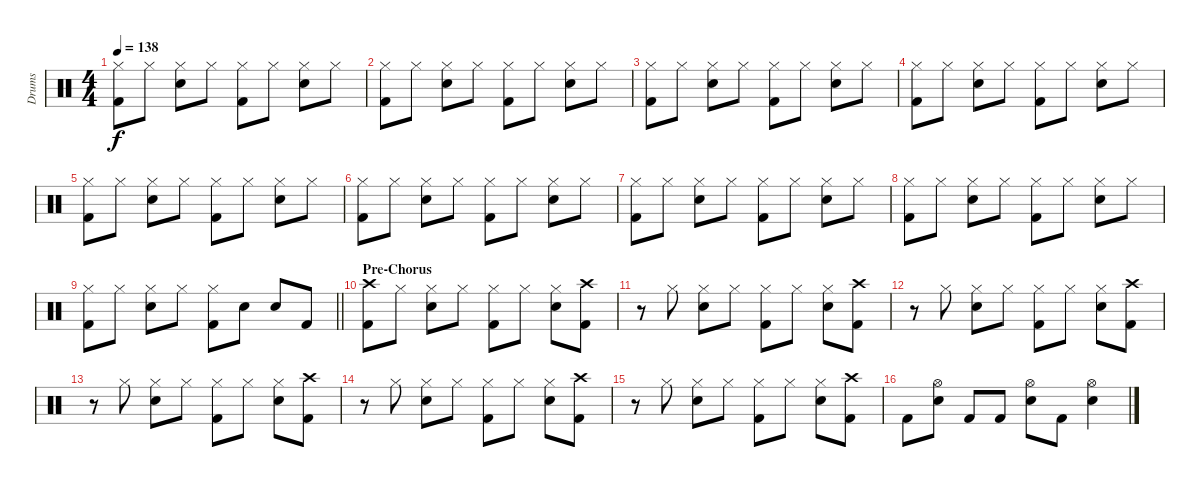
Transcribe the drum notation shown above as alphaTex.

\track ("Drums" "Drums") {instrument percussion}
\staff {score}
\articulation defaults
\ts (4 4)
\tempo 138
\clef neutral
\ks c
("Hi-Hat (closed)" "Kick (hit) 2").8{dy f} "Hi-Hat (closed)".8 ("Hi-Hat (closed)" "Snare (hit) 2").8 "Hi-Hat (closed)".8 ("Hi-Hat (closed)" "Kick (hit) 2").8 "Hi-Hat (closed)".8 ("Hi-Hat (closed)" "Snare (hit) 2").8 "Hi-Hat (closed)".8 |
("Hi-Hat (closed)" "Kick (hit) 2").8 "Hi-Hat (closed)".8 ("Hi-Hat (closed)" "Snare (hit) 2").8 "Hi-Hat (closed)".8 ("Hi-Hat (closed)" "Kick (hit) 2").8 "Hi-Hat (closed)".8 ("Hi-Hat (closed)" "Snare (hit) 2").8 "Hi-Hat (closed)".8 |
("Hi-Hat (closed)" "Kick (hit) 2").8 "Hi-Hat (closed)".8 ("Hi-Hat (closed)" "Snare (hit) 2").8 "Hi-Hat (closed)".8 ("Hi-Hat (closed)" "Kick (hit) 2").8 "Hi-Hat (closed)".8 ("Hi-Hat (closed)" "Snare (hit) 2").8 "Hi-Hat (closed)".8 |
("Hi-Hat (closed)" "Kick (hit) 2").8 "Hi-Hat (closed)".8 ("Hi-Hat (closed)" "Snare (hit) 2").8 "Hi-Hat (closed)".8 ("Hi-Hat (closed)" "Kick (hit) 2").8 "Hi-Hat (closed)".8 ("Hi-Hat (closed)" "Snare (hit) 2").8 "Hi-Hat (closed)".8 |
("Hi-Hat (closed)" "Kick (hit) 2").8 "Hi-Hat (closed)".8 ("Hi-Hat (closed)" "Snare (hit) 2").8 "Hi-Hat (closed)".8 ("Hi-Hat (closed)" "Kick (hit) 2").8 "Hi-Hat (closed)".8 ("Hi-Hat (closed)" "Snare (hit) 2").8 "Hi-Hat (closed)".8 |
("Hi-Hat (closed)" "Kick (hit) 2").8 "Hi-Hat (closed)".8 ("Hi-Hat (closed)" "Snare (hit) 2").8 "Hi-Hat (closed)".8 ("Hi-Hat (closed)" "Kick (hit) 2").8 "Hi-Hat (closed)".8 ("Hi-Hat (closed)" "Snare (hit) 2").8 "Hi-Hat (closed)".8 |
("Hi-Hat (closed)" "Kick (hit) 2").8 "Hi-Hat (closed)".8 ("Hi-Hat (closed)" "Snare (hit) 2").8 "Hi-Hat (closed)".8 ("Hi-Hat (closed)" "Kick (hit) 2").8 "Hi-Hat (closed)".8 ("Hi-Hat (closed)" "Snare (hit) 2").8 "Hi-Hat (closed)".8 |
("Hi-Hat (closed)" "Kick (hit) 2").8 "Hi-Hat (closed)".8 ("Hi-Hat (closed)" "Snare (hit) 2").8 "Hi-Hat (closed)".8 ("Hi-Hat (closed)" "Kick (hit) 2").8 "Hi-Hat (closed)".8 ("Hi-Hat (closed)" "Snare (hit) 2").8 "Hi-Hat (closed)".8 |
\barLineRight lightlight
("Hi-Hat (closed)" "Kick (hit) 2").8 "Hi-Hat (closed)".8 ("Hi-Hat (closed)" "Snare (hit) 2").8 "Hi-Hat (closed)".8 ("Hi-Hat (closed)" "Kick (hit) 2").8 "Snare (hit) 2".8 "Snare (hit) 2".8 "Kick (hit) 2".8 |
\section ("" "Pre-Chorus")
("Crash high (hit)" "Kick (hit) 2").8 "Hi-Hat (closed)".8 ("Hi-Hat (closed)" "Snare (hit) 2").8 "Hi-Hat (closed)".8 ("Hi-Hat (closed)" "Kick (hit) 2").8 "Hi-Hat (closed)".8 ("Hi-Hat (closed)" "Snare (hit) 2").8 ("Crash high (hit)" "Kick (hit) 2").8 |
r.8 "Hi-Hat (closed)".8 ("Hi-Hat (closed)" "Snare (hit) 2").8 "Hi-Hat (closed)".8 ("Hi-Hat (closed)" "Kick (hit) 2").8 "Hi-Hat (closed)".8 ("Hi-Hat (closed)" "Snare (hit) 2").8 ("Crash high (hit)" "Kick (hit) 2").8 |
r.8 "Hi-Hat (closed)".8 ("Hi-Hat (closed)" "Snare (hit) 2").8 "Hi-Hat (closed)".8 ("Hi-Hat (closed)" "Kick (hit) 2").8 "Hi-Hat (closed)".8 ("Hi-Hat (closed)" "Snare (hit) 2").8 ("Crash high (hit)" "Kick (hit) 2").8 |
r.8 "Hi-Hat (closed)".8 ("Hi-Hat (closed)" "Snare (hit) 2").8 "Hi-Hat (closed)".8 ("Hi-Hat (closed)" "Kick (hit) 2").8 "Hi-Hat (closed)".8 ("Hi-Hat (closed)" "Snare (hit) 2").8 ("Crash high (hit)" "Kick (hit) 2").8 |
r.8 "Hi-Hat (closed)".8 ("Hi-Hat (closed)" "Snare (hit) 2").8 "Hi-Hat (closed)".8 ("Hi-Hat (closed)" "Kick (hit) 2").8 "Hi-Hat (closed)".8 ("Hi-Hat (closed)" "Snare (hit) 2").8 ("Crash high (hit)" "Kick (hit) 2").8 |
r.8 "Hi-Hat (closed)".8 ("Hi-Hat (closed)" "Snare (hit) 2").8 "Hi-Hat (closed)".8 ("Hi-Hat (closed)" "Kick (hit) 2").8 "Hi-Hat (closed)".8 ("Hi-Hat (closed)" "Snare (hit) 2").8 ("Crash high (hit)" "Kick (hit) 2").8 |
"Kick (hit) 2".8 ("Hi-Hat (open)" "Snare (hit) 2").8 "Kick (hit) 2".8 "Kick (hit) 2".8 ("Hi-Hat (open)" "Snare (hit) 2").8 "Kick (hit) 2".8 ("Hi-Hat (open)" "Snare (hit) 2").4
